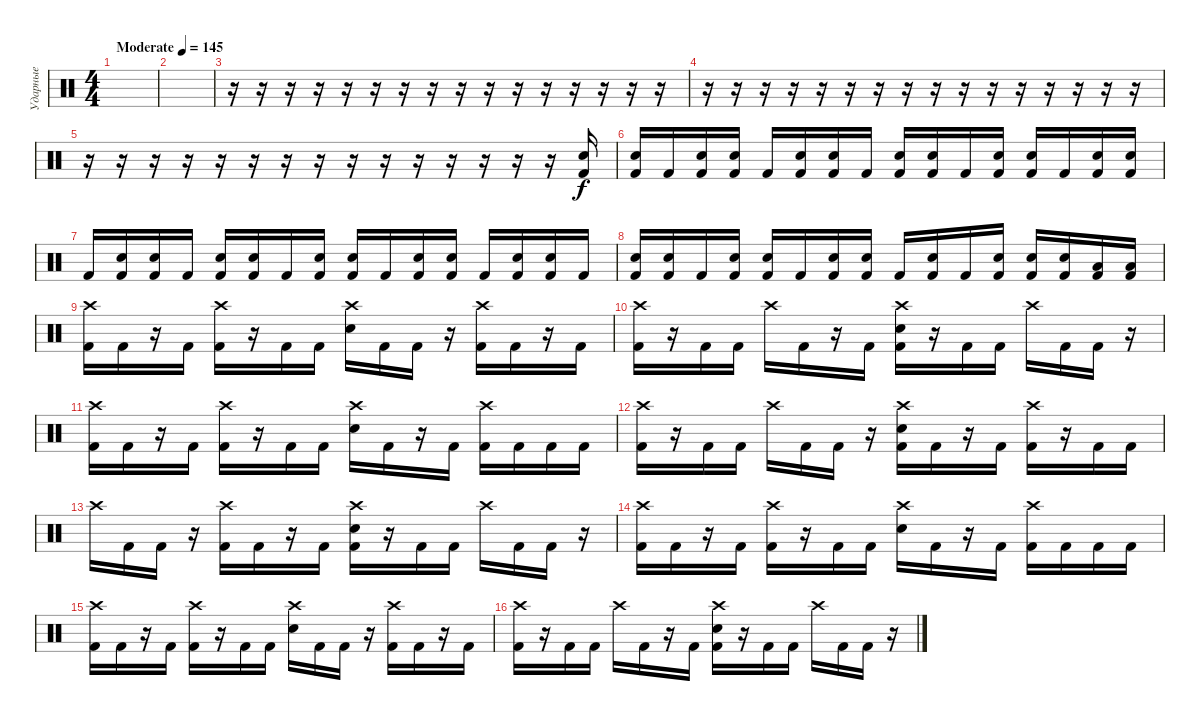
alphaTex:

\track ("Ударные" "Ударные") {instrument percussion}
\staff {score}
\articulation defaults
\ts (4 4)
\tempo (145 "Moderate")
\clef neutral
\ks c
|
|
r.16 r.16 r.16 r.16 r.16 r.16 r.16 r.16 r.16 r.16 r.16 r.16 r.16 r.16 r.16 r.16 |
r.16 r.16 r.16 r.16 r.16 r.16 r.16 r.16 r.16 r.16 r.16 r.16 r.16 r.16 r.16 r.16 |
r.16 r.16 r.16 r.16 r.16 r.16 r.16 r.16 r.16 r.16 r.16 r.16 r.16 r.16 r.16 ("Electric Snare (hit)" "Kick (hit) 2").16 |
("Electric Snare (hit)" "Kick (hit) 2").16 "Kick (hit) 2".16 ("Electric Snare (hit)" "Kick (hit) 2").16 ("Electric Snare (hit)" "Kick (hit) 2").16 "Kick (hit) 2".16 ("Electric Snare (hit)" "Kick (hit) 2").16 ("Electric Snare (hit)" "Kick (hit) 2").16 "Kick (hit) 2".16 ("Electric Snare (hit)" "Kick (hit) 2").16 ("Electric Snare (hit)" "Kick (hit) 2").16 "Kick (hit) 2".16 ("Electric Snare (hit)" "Kick (hit) 2").16 ("Electric Snare (hit)" "Kick (hit) 2").16 "Kick (hit) 2".16 ("Electric Snare (hit)" "Kick (hit) 2").16 ("Electric Snare (hit)" "Kick (hit) 2").16 |
"Kick (hit) 2".16 ("Electric Snare (hit)" "Kick (hit) 2").16 ("Electric Snare (hit)" "Kick (hit) 2").16 "Kick (hit) 2".16 ("Electric Snare (hit)" "Kick (hit) 2").16 ("Electric Snare (hit)" "Kick (hit) 2").16 "Kick (hit) 2".16 ("Electric Snare (hit)" "Kick (hit) 2").16 ("Electric Snare (hit)" "Kick (hit) 2").16 "Kick (hit) 2".16 ("Electric Snare (hit)" "Kick (hit) 2").16 ("Electric Snare (hit)" "Kick (hit) 2").16 "Kick (hit) 2".16 ("Electric Snare (hit)" "Kick (hit) 2").16 ("Electric Snare (hit)" "Kick (hit) 2").16 "Kick (hit) 2".16 |
("Electric Snare (hit)" "Kick (hit) 2").16 ("Electric Snare (hit)" "Kick (hit) 2").16 "Kick (hit) 2".16 ("Electric Snare (hit)" "Kick (hit) 2").16 ("Electric Snare (hit)" "Kick (hit) 2").16 "Kick (hit) 2".16 ("Electric Snare (hit)" "Kick (hit) 2").16 ("Electric Snare (hit)" "Kick (hit) 2").16 "Kick (hit) 2".16 ("Electric Snare (hit)" "Kick (hit) 2").16 "Kick (hit) 2".16 ("Electric Snare (hit)" "Kick (hit) 2").16 ("Electric Snare (hit)" "Kick (hit) 2").16 ("Electric Snare (hit)" "Kick (hit) 2").16 ("Low Tom (hit)" "Kick (hit) 2").16 ("Low Tom (hit)" "Kick (hit) 2").16 |
("Crash high (hit)" "Kick (hit) 2").16 "Kick (hit) 2".16 r.16 "Kick (hit) 2".16 ("Crash high (hit)" "Kick (hit) 2").16 r.16 "Kick (hit) 2".16 "Kick (hit) 2".16 ("Crash high (hit)" "Electric Snare (hit)").16 "Kick (hit) 2".16 "Kick (hit) 2".16 r.16 ("Crash high (hit)" "Kick (hit) 2").16 "Kick (hit) 2".16 r.16 "Kick (hit) 2".16 |
("Crash high (hit)" "Kick (hit) 2").16 r.16 "Kick (hit) 2".16 "Kick (hit) 2".16 "Crash high (hit)".16 "Kick (hit) 2".16 r.16 "Kick (hit) 2".16 ("Crash high (hit)" "Electric Snare (hit)" "Kick (hit) 2").16 r.16 "Kick (hit) 2".16 "Kick (hit) 2".16 "Crash high (hit)".16 "Kick (hit) 2".16 "Kick (hit) 2".16 r.16 |
("Crash high (hit)" "Kick (hit) 2").16 "Kick (hit) 2".16 r.16 "Kick (hit) 2".16 ("Crash high (hit)" "Kick (hit) 2").16 r.16 "Kick (hit) 2".16 "Kick (hit) 2".16 ("Crash high (hit)" "Electric Snare (hit)").16 "Kick (hit) 2".16 r.16 "Kick (hit) 2".16 ("Crash high (hit)" "Kick (hit) 2").16 "Kick (hit) 2".16 "Kick (hit) 2".16 "Kick (hit) 2".16 |
("Crash high (hit)" "Kick (hit) 2").16 r.16 "Kick (hit) 2".16 "Kick (hit) 2".16 "Crash high (hit)".16 "Kick (hit) 2".16 "Kick (hit) 2".16 r.16 ("Crash high (hit)" "Electric Snare (hit)" "Kick (hit) 2").16 "Kick (hit) 2".16 r.16 "Kick (hit) 2".16 ("Crash high (hit)" "Kick (hit) 2").16 r.16 "Kick (hit) 2".16 "Kick (hit) 2".16 |
"Crash high (hit)".16 "Kick (hit) 2".16 "Kick (hit) 2".16 r.16 ("Crash high (hit)" "Kick (hit) 2").16 "Kick (hit) 2".16 r.16 "Kick (hit) 2".16 ("Crash high (hit)" "Electric Snare (hit)" "Kick (hit) 2").16 r.16 "Kick (hit) 2".16 "Kick (hit) 2".16 "Crash high (hit)".16 "Kick (hit) 2".16 "Kick (hit) 2".16 r.16 |
("Crash high (hit)" "Kick (hit) 2").16 "Kick (hit) 2".16 r.16 "Kick (hit) 2".16 ("Crash high (hit)" "Kick (hit) 2").16 r.16 "Kick (hit) 2".16 "Kick (hit) 2".16 ("Crash high (hit)" "Electric Snare (hit)").16 "Kick (hit) 2".16 r.16 "Kick (hit) 2".16 ("Crash high (hit)" "Kick (hit) 2").16 "Kick (hit) 2".16 "Kick (hit) 2".16 "Kick (hit) 2".16 |
("Crash high (hit)" "Kick (hit) 2").16 "Kick (hit) 2".16 r.16 "Kick (hit) 2".16 ("Crash high (hit)" "Kick (hit) 2").16 r.16 "Kick (hit) 2".16 "Kick (hit) 2".16 ("Crash high (hit)" "Electric Snare (hit)").16 "Kick (hit) 2".16 "Kick (hit) 2".16 r.16 ("Crash high (hit)" "Kick (hit) 2").16 "Kick (hit) 2".16 r.16 "Kick (hit) 2".16 |
("Crash high (hit)" "Kick (hit) 2").16 r.16 "Kick (hit) 2".16 "Kick (hit) 2".16 "Crash high (hit)".16 "Kick (hit) 2".16 r.16 "Kick (hit) 2".16 ("Crash high (hit)" "Electric Snare (hit)" "Kick (hit) 2").16 r.16 "Kick (hit) 2".16 "Kick (hit) 2".16 "Crash high (hit)".16 "Kick (hit) 2".16 "Kick (hit) 2".16 r.16
